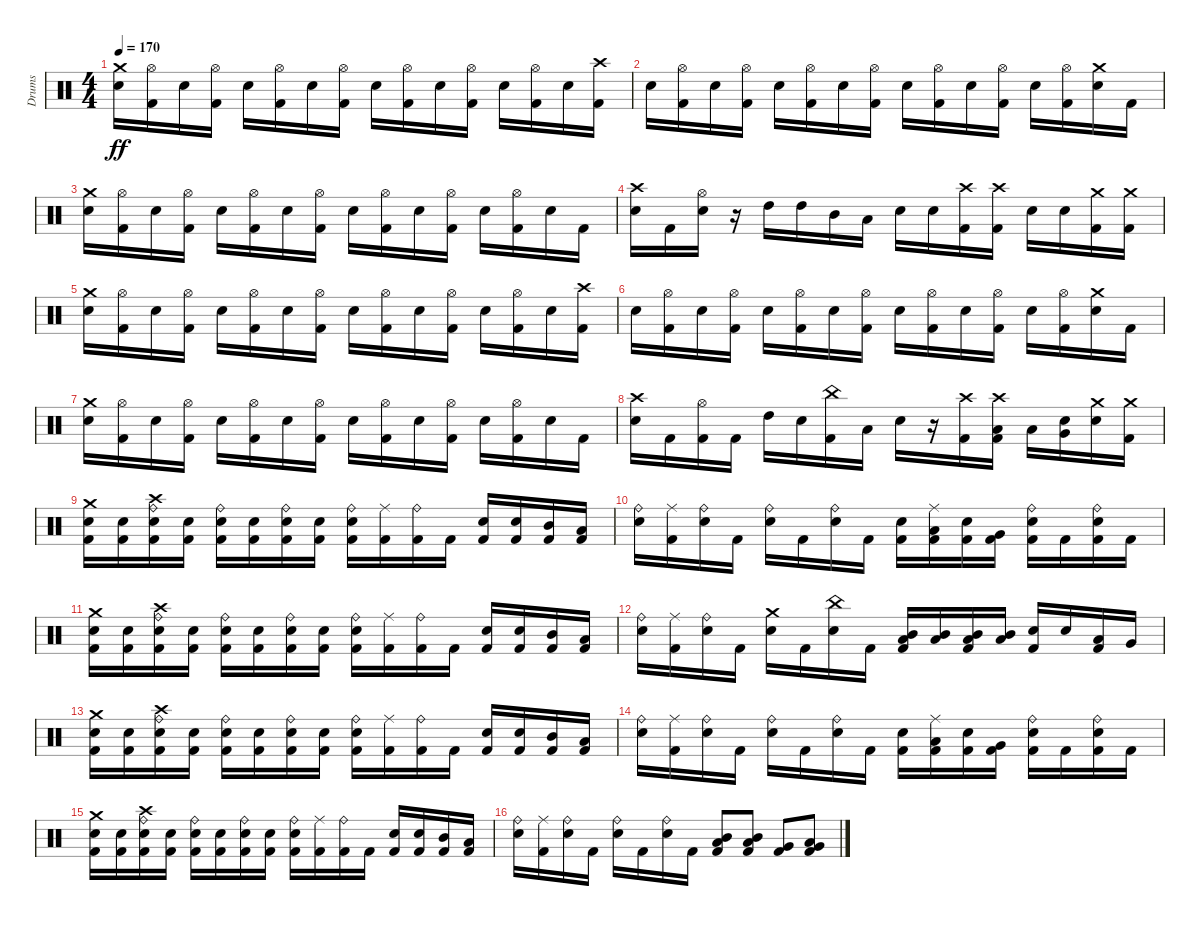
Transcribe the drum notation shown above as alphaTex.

\track ("Drums" "Drums") {instrument percussion}
\staff {score}
\articulation defaults
\ts (4 4)
\tempo 170
\clef neutral
\ks c
("Crash medium (hit)" "Snare (hit) 2").16{dy ff} ("Hi-Hat (open)" "Kick (hit) 2").16 "Snare (hit) 2".16 ("Hi-Hat (open)" "Kick (hit) 2").16 "Snare (hit) 2".16 ("Hi-Hat (open)" "Kick (hit) 2").16 "Snare (hit) 2".16 ("Hi-Hat (open)" "Kick (hit) 2").16 "Snare (hit) 2".16 ("Hi-Hat (open)" "Kick (hit) 2").16 "Snare (hit) 2".16 ("Hi-Hat (open)" "Kick (hit) 2").16 "Snare (hit) 2".16 ("Hi-Hat (open)" "Kick (hit) 2").16 "Snare (hit) 2".16 ("Crash high (hit)" "Kick (hit) 2").16 |
"Snare (hit) 2".16 ("Hi-Hat (open)" "Kick (hit) 2").16 "Snare (hit) 2".16 ("Hi-Hat (open)" "Kick (hit) 2").16 "Snare (hit) 2".16 ("Hi-Hat (open)" "Kick (hit) 2").16 "Snare (hit) 2".16 ("Hi-Hat (open)" "Kick (hit) 2").16 "Snare (hit) 2".16 ("Hi-Hat (open)" "Kick (hit) 2").16 "Snare (hit) 2".16 ("Hi-Hat (open)" "Kick (hit) 2").16 "Snare (hit) 2".16 ("Hi-Hat (open)" "Kick (hit) 2").16 ("Crash medium (hit)" "Snare (hit) 2").16 "Kick (hit) 2".16 |
("Crash medium (hit)" "Snare (hit) 2").16 ("Hi-Hat (open)" "Kick (hit) 2").16 "Snare (hit) 2".16 ("Hi-Hat (open)" "Kick (hit) 2").16 "Snare (hit) 2".16 ("Hi-Hat (open)" "Kick (hit) 2").16 "Snare (hit) 2".16 ("Hi-Hat (open)" "Kick (hit) 2").16 "Snare (hit) 2".16 ("Hi-Hat (open)" "Kick (hit) 2").16 "Snare (hit) 2".16 ("Hi-Hat (open)" "Kick (hit) 2").16 "Snare (hit) 2".16 ("Hi-Hat (open)" "Kick (hit) 2").16 "Snare (hit) 2".16 "Kick (hit) 2".16 |
("Crash high (hit)" "Snare (hit) 2").16 "Kick (hit) 2".16 ("Hi-Hat (open)" "Snare (hit) 2").16 r.16 "High Tom (hit)".16 "High Tom (hit)".16 "Mid Tom (hit)".16 "Low Tom (hit)".16 "Snare (hit) 2".16 "Snare (hit) 2".16 ("Crash high (hit)" "Kick (hit) 2").16 ("Crash high (hit)" "Kick (hit) 2").16 "Snare (hit) 2".16 "Snare (hit) 2".16 ("Crash medium (hit)" "Kick (hit) 2").16 ("Crash medium (hit)" "Kick (hit) 2").16 |
("Crash medium (hit)" "Snare (hit) 2").16 ("Hi-Hat (open)" "Kick (hit) 2").16 "Snare (hit) 2".16 ("Hi-Hat (open)" "Kick (hit) 2").16 "Snare (hit) 2".16 ("Hi-Hat (open)" "Kick (hit) 2").16 "Snare (hit) 2".16 ("Hi-Hat (open)" "Kick (hit) 2").16 "Snare (hit) 2".16 ("Hi-Hat (open)" "Kick (hit) 2").16 "Snare (hit) 2".16 ("Hi-Hat (open)" "Kick (hit) 2").16 "Snare (hit) 2".16 ("Hi-Hat (open)" "Kick (hit) 2").16 "Snare (hit) 2".16 ("Crash high (hit)" "Kick (hit) 2").16 |
"Snare (hit) 2".16 ("Hi-Hat (open)" "Kick (hit) 2").16 "Snare (hit) 2".16 ("Hi-Hat (open)" "Kick (hit) 2").16 "Snare (hit) 2".16 ("Hi-Hat (open)" "Kick (hit) 2").16 "Snare (hit) 2".16 ("Hi-Hat (open)" "Kick (hit) 2").16 "Snare (hit) 2".16 ("Hi-Hat (open)" "Kick (hit) 2").16 "Snare (hit) 2".16 ("Hi-Hat (open)" "Kick (hit) 2").16 "Snare (hit) 2".16 ("Hi-Hat (open)" "Kick (hit) 2").16 ("Crash medium (hit)" "Snare (hit) 2").16 "Kick (hit) 2".16 |
("Crash medium (hit)" "Snare (hit) 2").16 ("Hi-Hat (open)" "Kick (hit) 2").16 "Snare (hit) 2".16 ("Hi-Hat (open)" "Kick (hit) 2").16 "Snare (hit) 2".16 ("Hi-Hat (open)" "Kick (hit) 2").16 "Snare (hit) 2".16 ("Hi-Hat (open)" "Kick (hit) 2").16 "Snare (hit) 2".16 ("Hi-Hat (open)" "Kick (hit) 2").16 "Snare (hit) 2".16 ("Hi-Hat (open)" "Kick (hit) 2").16 "Snare (hit) 2".16 ("Hi-Hat (open)" "Kick (hit) 2").16 "Snare (hit) 2".16 "Kick (hit) 2".16 |
("Crash high (hit)" "Snare (hit) 2").16 "Kick (hit) 2".16 ("Hi-Hat (open)" "Kick (hit) 2").16 "Kick (hit) 2".16 "High Tom (hit)".16 "Snare (hit) 2".16 ("China (hit)" "Kick (hit) 2").16 "Low Tom (hit)".16 "Snare (hit) 2".16 r.16 ("Crash high (hit)" "Kick (hit) 2").16 ("Crash high (hit)" "Kick (hit) 2" "Low Tom (hit)").16 "Low Tom (hit)".16 ("Snare (hit) 2" "Very Low Tom (hit)").16 ("Crash medium (hit)" "Snare (hit) 2").16 ("Crash medium (hit)" "Kick (hit) 2").16 |
("Crash medium (hit)" "Kick (hit) 2" "Snare (hit) 2").16 ("Kick (hit) 2" "Snare (hit) 2").16 ("Crash high (hit)" "Kick (hit) 2" "Snare (hit) 2" "Ride (bell)").16 ("Kick (hit) 2" "Snare (hit) 2").16 ("Kick (hit) 2" "Snare (hit) 2" "Ride (bell)").16 ("Kick (hit) 2" "Snare (hit) 2").16 ("Kick (hit) 2" "Snare (hit) 2" "Ride (bell)").16 ("Kick (hit) 2" "Snare (hit) 2").16 ("Kick (hit) 2" "Snare (hit) 2" "Ride (bell)").16 ("Kick (hit) 2" "Ride (middle)").16 ("Kick (hit) 2" "Ride (bell)").16 "Kick (hit) 2".16 ("Kick (hit) 2" "Snare (hit) 2").16 ("Kick (hit) 2" "Snare (hit) 2").16 ("Kick (hit) 2" "Mid Tom (hit)").16 ("Kick (hit) 2" "Low Tom (hit)").16 |
("Snare (hit) 2" "Ride (bell)").16 ("Kick (hit) 2" "Ride (middle)").16 ("Snare (hit) 2" "Ride (bell)").16 "Kick (hit) 2".16 ("Snare (hit) 2" "Ride (bell)").16 "Kick (hit) 2".16 ("Snare (hit) 2" "Ride (bell)").16 "Kick (hit) 2".16 ("Kick (hit) 2" "Snare (hit) 2").16 ("Kick (hit) 2" "Low Tom (hit)" "Ride (middle)").16 ("Kick (hit) 2" "Snare (hit) 2").16 ("Kick (hit) 2" "Very Low Tom (hit)").16 ("Kick (hit) 2" "Snare (hit) 2" "Ride (bell)").16 "Kick (hit) 2".16 ("Kick (hit) 2" "Snare (hit) 2" "Ride (bell)").16 "Kick (hit) 2".16 |
("Crash medium (hit)" "Kick (hit) 2" "Snare (hit) 2").16 ("Kick (hit) 2" "Snare (hit) 2").16 ("Crash high (hit)" "Kick (hit) 2" "Snare (hit) 2" "Ride (bell)").16 ("Kick (hit) 2" "Snare (hit) 2").16 ("Kick (hit) 2" "Snare (hit) 2" "Ride (bell)").16 ("Kick (hit) 2" "Snare (hit) 2").16 ("Kick (hit) 2" "Snare (hit) 2" "Ride (bell)").16 ("Kick (hit) 2" "Snare (hit) 2").16 ("Kick (hit) 2" "Snare (hit) 2" "Ride (bell)").16 ("Kick (hit) 2" "Ride (middle)").16 ("Kick (hit) 2" "Ride (bell)").16 "Kick (hit) 2".16 ("Kick (hit) 2" "Snare (hit) 2").16 ("Kick (hit) 2" "Snare (hit) 2").16 ("Kick (hit) 2" "Mid Tom (hit)").16 ("Kick (hit) 2" "Low Tom (hit)").16 |
("Snare (hit) 2" "Ride (bell)").16 ("Kick (hit) 2" "Ride (middle)").16 ("Snare (hit) 2" "Ride (bell)").16 "Kick (hit) 2".16 ("Crash medium (hit)" "Snare (hit) 2").16 "Kick (hit) 2".16 ("China (hit)" "Snare (hit) 2").16 "Kick (hit) 2".16 ("Kick (hit) 2" "Low Tom (hit)" "Mid Tom (hit)").16 ("Low Tom (hit)" "Mid Tom (hit)").16 ("Kick (hit) 2" "Low Tom (hit)" "Mid Tom (hit)").16 ("Low Tom (hit)" "Mid Tom (hit)").16 ("Kick (hit) 2" "Snare (hit) 2").16 "Snare (hit) 2".16 ("Kick (hit) 2" "Low Tom (hit)").16 "Very Low Tom (hit)".16 |
("Crash medium (hit)" "Kick (hit) 2" "Snare (hit) 2").16 ("Kick (hit) 2" "Snare (hit) 2").16 ("Crash high (hit)" "Kick (hit) 2" "Snare (hit) 2" "Ride (bell)").16 ("Kick (hit) 2" "Snare (hit) 2").16 ("Kick (hit) 2" "Snare (hit) 2" "Ride (bell)").16 ("Kick (hit) 2" "Snare (hit) 2").16 ("Kick (hit) 2" "Snare (hit) 2" "Ride (bell)").16 ("Kick (hit) 2" "Snare (hit) 2").16 ("Kick (hit) 2" "Snare (hit) 2" "Ride (bell)").16 ("Kick (hit) 2" "Ride (middle)").16 ("Kick (hit) 2" "Ride (bell)").16 "Kick (hit) 2".16 ("Kick (hit) 2" "Snare (hit) 2").16 ("Kick (hit) 2" "Snare (hit) 2").16 ("Kick (hit) 2" "Mid Tom (hit)").16 ("Kick (hit) 2" "Low Tom (hit)").16 |
("Snare (hit) 2" "Ride (bell)").16 ("Kick (hit) 2" "Ride (middle)").16 ("Snare (hit) 2" "Ride (bell)").16 "Kick (hit) 2".16 ("Snare (hit) 2" "Ride (bell)").16 "Kick (hit) 2".16 ("Snare (hit) 2" "Ride (bell)").16 "Kick (hit) 2".16 ("Kick (hit) 2" "Snare (hit) 2").16 ("Kick (hit) 2" "Low Tom (hit)" "Ride (middle)").16 ("Kick (hit) 2" "Snare (hit) 2").16 ("Kick (hit) 2" "Very Low Tom (hit)").16 ("Kick (hit) 2" "Snare (hit) 2" "Ride (bell)").16 "Kick (hit) 2".16 ("Kick (hit) 2" "Snare (hit) 2" "Ride (bell)").16 "Kick (hit) 2".16 |
("Crash medium (hit)" "Kick (hit) 2" "Snare (hit) 2").16 ("Kick (hit) 2" "Snare (hit) 2").16 ("Crash high (hit)" "Kick (hit) 2" "Snare (hit) 2" "Ride (bell)").16 ("Kick (hit) 2" "Snare (hit) 2").16 ("Kick (hit) 2" "Snare (hit) 2" "Ride (bell)").16 ("Kick (hit) 2" "Snare (hit) 2").16 ("Kick (hit) 2" "Snare (hit) 2" "Ride (bell)").16 ("Kick (hit) 2" "Snare (hit) 2").16 ("Kick (hit) 2" "Snare (hit) 2" "Ride (bell)").16 ("Kick (hit) 2" "Ride (middle)").16 ("Kick (hit) 2" "Ride (bell)").16 "Kick (hit) 2".16 ("Kick (hit) 2" "Snare (hit) 2").16 ("Kick (hit) 2" "Snare (hit) 2").16 ("Kick (hit) 2" "Mid Tom (hit)").16 ("Kick (hit) 2" "Low Tom (hit)").16 |
("Snare (hit) 2" "Ride (bell)").16 ("Kick (hit) 2" "Ride (middle)").16 ("Snare (hit) 2" "Ride (bell)").16 "Kick (hit) 2".16 ("Snare (hit) 2" "Ride (bell)").16 "Kick (hit) 2".16 ("Snare (hit) 2" "Ride (bell)").16 "Kick (hit) 2".16 ("Kick (hit) 2" "Low Tom (hit)" "Mid Tom (hit)").8 ("Kick (hit) 2" "Low Tom (hit)" "Mid Tom (hit)").8 ("Kick (hit) 2" "Very Low Tom (hit)").8 ("Kick (hit) 2" "Very Low Tom (hit)" "Low Tom (hit)").8
